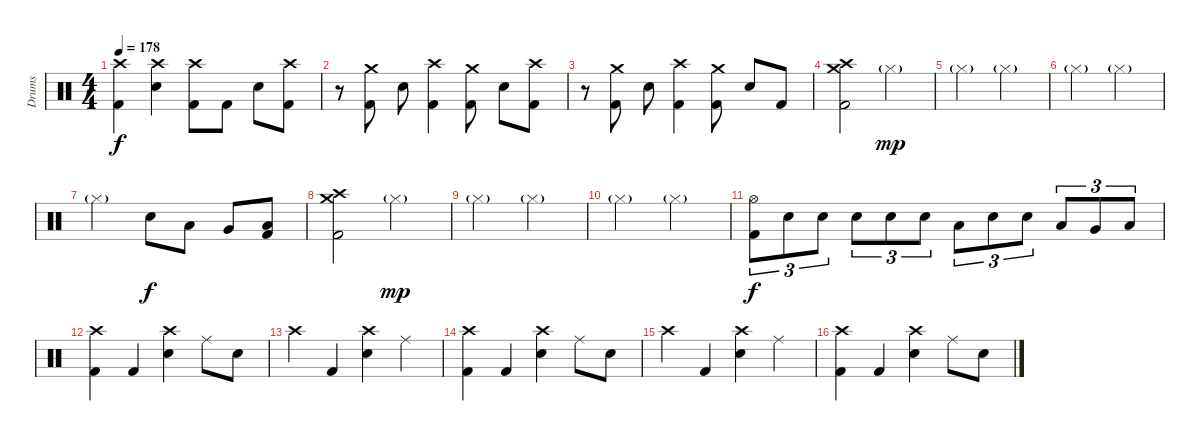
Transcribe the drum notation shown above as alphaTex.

\track ("Drums" "Drums") {instrument percussion}
\staff {score}
\articulation defaults
\ts (4 4)
\tempo 178
\clef neutral
\ks c
("Crash high (hit)" "Kick (hit) 2").4{dy f} ("Crash high (hit)" "Electric Snare (hit)").4 ("Crash high (hit)" "Kick (hit) 2").8 "Kick (hit) 2".8 "Electric Snare (hit)".8 ("Crash high (hit)" "Kick (hit) 2").8 |
r.8 ("Crash medium (hit)" "Kick (hit) 2").8 "Electric Snare (hit)".8 ("Crash high (hit)" "Kick (hit) 2").4 ("Crash medium (hit)" "Kick (hit) 2").8 "Electric Snare (hit)".8 ("Crash high (hit)" "Kick (hit) 2").8 |
r.8 ("Crash medium (hit)" "Kick (hit) 2").8 "Electric Snare (hit)".8 ("Crash high (hit)" "Kick (hit) 2").4 ("Crash medium (hit)" "Kick (hit) 2").8 "Electric Snare (hit)".8 "Kick (hit) 2".8 |
("Crash high (hit)" "Crash medium (hit)" "Kick (hit) 2").2 "Hi-Hat (closed)"{g}.2{dy mp} |
"Hi-Hat (closed)"{g}.2 "Hi-Hat (closed)"{g}.2 |
"Hi-Hat (closed)"{g}.2 "Hi-Hat (closed)"{g}.2 |
"Hi-Hat (closed)"{g}.2 "Electric Snare (hit)".8{dy f} "Low Tom (hit)".8 "Very Low Tom (hit)".8 ("Low Floor Tom (hit)" "Kick (hit) 2").8 |
("Crash high (hit)" "Crash medium (hit)" "Kick (hit) 2").2 "Hi-Hat (closed)"{g}.2{dy mp} |
"Hi-Hat (closed)"{g}.2 "Hi-Hat (closed)"{g}.2 |
"Hi-Hat (closed)"{g}.2 "Hi-Hat (closed)"{g}.2 |
("Hi-Hat (open)" "Kick (hit) 2").8{tu (3 2) dy f} "Electric Snare (hit)".8{tu (3 2)} "Electric Snare (hit)".8{tu (3 2)} "Electric Snare (hit)".8{tu (3 2)} "Electric Snare (hit)".8{tu (3 2)} "Electric Snare (hit)".8{tu (3 2)} "Low Tom (hit)".8{tu (3 2)} "Electric Snare (hit)".8{tu (3 2)} "Electric Snare (hit)".8{tu (3 2)} "Low Tom (hit)".8{tu (3 2)} "Very Low Tom (hit)".8{tu (3 2)} "Low Floor Tom (hit)".8{tu (3 2)} |
("Crash high (hit)" "Kick (hit) 2").4 "Kick (hit) 2".4 ("Crash high (hit)" "Electric Snare (hit)").4 "Ride (middle)".8 "Electric Snare (hit)".8 |
"Crash high (hit)".4 "Kick (hit) 2".4 ("Crash high (hit)" "Electric Snare (hit)").4 "Ride (middle)".4 |
("Crash high (hit)" "Kick (hit) 2").4 "Kick (hit) 2".4 ("Crash high (hit)" "Electric Snare (hit)").4 "Ride (middle)".8 "Electric Snare (hit)".8 |
"Crash high (hit)".4 "Kick (hit) 2".4 ("Crash high (hit)" "Electric Snare (hit)").4 "Ride (middle)".4 |
("Crash high (hit)" "Kick (hit) 2").4 "Kick (hit) 2".4 ("Crash high (hit)" "Electric Snare (hit)").4 "Ride (middle)".8 "Electric Snare (hit)".8
